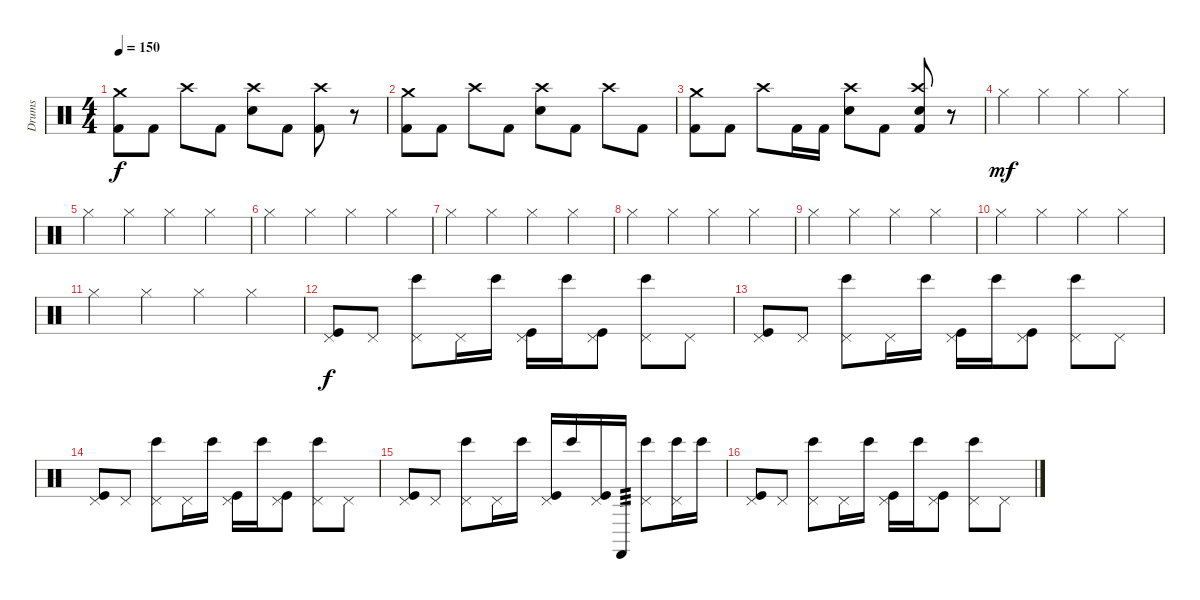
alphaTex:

\track ("Drums" "Drums") {instrument percussion}
\staff {score}
\articulation defaults
\ts (4 4)
\tempo 150
\clef neutral
\ks c
("Kick (hit) 2" "Crash medium (hit)").8{dy f} "Kick (hit) 2".8 "Crash high (hit)".8 "Kick (hit) 2".8 ("Electric Snare (hit)" "Crash high (hit)").8 "Kick (hit) 2".8 ("Kick (hit) 2" "Crash high (hit)").8 r.8 |
("Kick (hit) 2" "Crash medium (hit)").8 "Kick (hit) 2".8 "Crash high (hit)".8 "Kick (hit) 2".8 ("Electric Snare (hit)" "Crash high (hit)").8 "Kick (hit) 2".8 "Crash high (hit)".8 "Kick (hit) 2".8 |
("Kick (hit) 2" "Crash medium (hit)").8 "Kick (hit) 2".8 "Crash high (hit)".8 "Kick (hit) 2".16 "Kick (hit) 2".16 ("Electric Snare (hit)" "Crash high (hit)").8 "Kick (hit) 2".8 ("Kick (hit) 2" "Electric Snare (hit)" "Crash high (hit)").8 r.8 |
"Hi-Hat (closed)".4{dy mf} "Hi-Hat (closed)".4 "Hi-Hat (closed)".4 "Hi-Hat (closed)".4 |
"Hi-Hat (closed)".4 "Hi-Hat (closed)".4 "Hi-Hat (closed)".4 "Hi-Hat (closed)".4 |
"Hi-Hat (closed)".4 "Hi-Hat (closed)".4 "Hi-Hat (closed)".4 "Hi-Hat (closed)".4 |
"Hi-Hat (closed)".4 "Hi-Hat (closed)".4 "Hi-Hat (closed)".4 "Hi-Hat (closed)".4 |
"Hi-Hat (closed)".4 "Hi-Hat (closed)".4 "Hi-Hat (closed)".4 "Hi-Hat (closed)".4 |
"Hi-Hat (closed)".4 "Hi-Hat (closed)".4 "Hi-Hat (closed)".4 "Hi-Hat (closed)".4 |
"Hi-Hat (closed)".4 "Hi-Hat (closed)".4 "Hi-Hat (closed)".4 "Hi-Hat (closed)".4 |
"Hi-Hat (closed)".4 "Hi-Hat (closed)".4 "Hi-Hat (closed)".4 "Hi-Hat (closed)".4 |
("Kick (hit)" "Pedal Hi-Hat (hit)").8{dy f volume 10} "Pedal Hi-Hat (hit)".8 ("Bongo High (hit)" "Pedal Hi-Hat (hit)").8 "Pedal Hi-Hat (hit)".16 "Bongo High (hit)".16 ("Kick (hit)" "Pedal Hi-Hat (hit)").16 "Bongo High (hit)".16 ("Kick (hit)" "Pedal Hi-Hat (hit)").8 ("Bongo High (hit)" "Pedal Hi-Hat (hit)").8 "Pedal Hi-Hat (hit)".8 |
("Kick (hit)" "Pedal Hi-Hat (hit)").8 "Pedal Hi-Hat (hit)".8 ("Bongo High (hit)" "Pedal Hi-Hat (hit)").8 "Pedal Hi-Hat (hit)".16 "Bongo High (hit)".16 ("Kick (hit)" "Pedal Hi-Hat (hit)").16 "Bongo High (hit)".16 ("Kick (hit)" "Pedal Hi-Hat (hit)").8 ("Bongo High (hit)" "Pedal Hi-Hat (hit)").8 "Pedal Hi-Hat (hit)".8 |
("Kick (hit)" "Pedal Hi-Hat (hit)").8 "Pedal Hi-Hat (hit)".8 ("Bongo High (hit)" "Pedal Hi-Hat (hit)").8 "Pedal Hi-Hat (hit)".16 "Bongo High (hit)".16 ("Kick (hit)" "Pedal Hi-Hat (hit)").16 "Bongo High (hit)".16 ("Kick (hit)" "Pedal Hi-Hat (hit)").8 ("Bongo High (hit)" "Pedal Hi-Hat (hit)").8 "Pedal Hi-Hat (hit)".8 |
("Kick (hit)" "Pedal Hi-Hat (hit)").8 "Pedal Hi-Hat (hit)".8 ("Bongo High (hit)" "Pedal Hi-Hat (hit)").8 "Pedal Hi-Hat (hit)".16 "Bongo High (hit)".16 ("Kick (hit)" "Pedal Hi-Hat (hit)").16 "Bongo High (hit)".16 ("Kick (hit)" "Pedal Hi-Hat (hit)").16 "Castanets (hit)".16{tp 3} ("Bongo High (hit)" "Pedal Hi-Hat (hit)").8 ("Bongo High (hit)" "Pedal Hi-Hat (hit)").16 "Bongo High (hit)".16 |
("Kick (hit)" "Pedal Hi-Hat (hit)").8 "Pedal Hi-Hat (hit)".8 ("Bongo High (hit)" "Pedal Hi-Hat (hit)").8 "Pedal Hi-Hat (hit)".16 "Bongo High (hit)".16 ("Kick (hit)" "Pedal Hi-Hat (hit)").16 "Bongo High (hit)".16 ("Kick (hit)" "Pedal Hi-Hat (hit)").8 ("Bongo High (hit)" "Pedal Hi-Hat (hit)").8 "Pedal Hi-Hat (hit)".8
